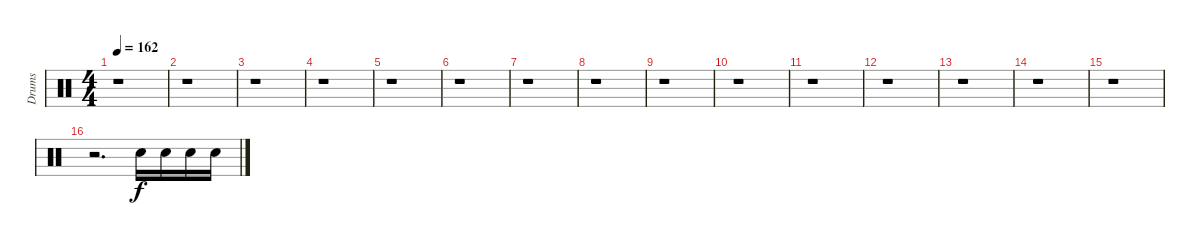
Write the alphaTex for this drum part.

\track ("Drums" "Drums") {instrument percussion}
\staff {score}
\articulation defaults
\ts (4 4)
\tempo 162
\clef neutral
\ks c
r.1{dy f} |
r.1 |
r.1 |
r.1 |
r.1 |
r.1 |
r.1 |
r.1 |
r.1 |
r.1 |
r.1 |
r.1 |
r.1 |
r.1 |
r.1 |
r.2{d} "Electric Snare (hit)".16 "Electric Snare (hit)".16 "Electric Snare (hit)".16 "Electric Snare (hit)".16
